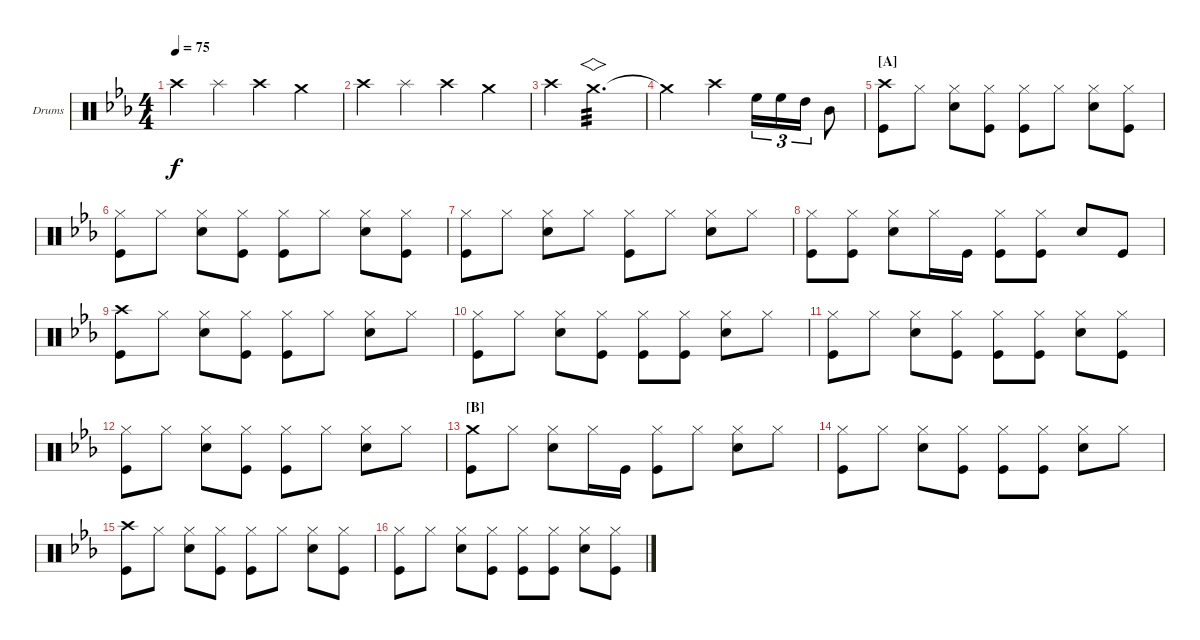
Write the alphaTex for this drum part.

\bracketExtendMode groupsimilarinstruments
\firstSystemTrackNameOrientation horizontal
\otherSystemsTrackNameOrientation horizontal
\track ("Drumkit" "Drums") {instrument percussion}
\staff {score}
\articulation defaults
\ts (4 4)
\tempo 75
\clef neutral
\scale
0.474178
\ks eb "Crash high (hit)".4{dy f} "Splash (hit)".4 "Crash high (hit)".4 "Crash medium (hit)".4
|
\scale
0.262911 "Crash high (hit)".4 "Splash (hit)".4 "Crash high (hit)".4 "Crash medium (hit)".4 |
\scale
0.262911 "Crash high (hit)".4 "Crash medium (hit)".2{vs d tp 3} |
\scale
0.333333 "Crash medium (hit)"{t}.2 "Crash high (hit)".4 "High Floor Tom (hit)".16{tu (3 2)} "High Floor Tom (hit)".16{tu (3 2)} "High Tom (hit)".16{tu (3 2)} "Mid Tom (hit)".8 |
\section ("A" "")
\scale
0.333333 ("Kick (hit)" "Crash high (hit)").8 "Hi-Hat (closed)".8 ("Snare (hit) 2" "Hi-Hat (closed)").8 ("Kick (hit)" "Hi-Hat (closed)").8 ("Kick (hit)" "Hi-Hat (closed)").8 "Hi-Hat (closed)".8 ("Snare (hit) 2" "Hi-Hat (closed)").8 ("Kick (hit)" "Hi-Hat (closed)").8 |
\scale
0.333333 ("Kick (hit)" "Hi-Hat (closed)").8 "Hi-Hat (closed)".8 ("Snare (hit) 2" "Hi-Hat (closed)").8 ("Kick (hit)" "Hi-Hat (closed)").8 ("Kick (hit)" "Hi-Hat (closed)").8 "Hi-Hat (closed)".8 ("Snare (hit) 2" "Hi-Hat (closed)").8 ("Kick (hit)" "Hi-Hat (closed)").8 |
\scale
0.333333 ("Kick (hit)" "Hi-Hat (closed)").8 "Hi-Hat (closed)".8 ("Snare (hit) 2" "Hi-Hat (closed)").8 "Hi-Hat (closed)".8 ("Kick (hit)" "Hi-Hat (closed)").8 "Hi-Hat (closed)".8 ("Snare (hit) 2" "Hi-Hat (closed)").8 "Hi-Hat (closed)".8 |
\scale
0.333333 ("Kick (hit)" "Hi-Hat (closed)").8 ("Hi-Hat (closed)" "Kick (hit)").8 ("Snare (hit) 2" "Hi-Hat (closed)").8 "Hi-Hat (closed)".16 "Kick (hit)".16 ("Kick (hit)" "Hi-Hat (closed)").8 ("Hi-Hat (closed)" "Kick (hit)").8 "Snare (hit) 2".8 "Kick (hit)".8 |
\scale
0.333333 ("Kick (hit)" "Crash high (hit)").8 "Hi-Hat (closed)".8 ("Snare (hit) 2" "Hi-Hat (closed)").8 ("Kick (hit)" "Hi-Hat (closed)").8 ("Kick (hit)" "Hi-Hat (closed)").8 "Hi-Hat (closed)".8 ("Snare (hit) 2" "Hi-Hat (closed)").8 "Hi-Hat (closed)".8 |
\scale
0.333333 ("Kick (hit)" "Hi-Hat (closed)").8 "Hi-Hat (closed)".8 ("Snare (hit) 2" "Hi-Hat (closed)").8 ("Kick (hit)" "Hi-Hat (closed)").8 ("Kick (hit)" "Hi-Hat (closed)").8 ("Hi-Hat (closed)" "Kick (hit)").8 ("Snare (hit) 2" "Hi-Hat (closed)").8 "Hi-Hat (closed)".8 |
\scale
0.333333 ("Kick (hit)" "Hi-Hat (closed)").8 "Hi-Hat (closed)".8 ("Snare (hit) 2" "Hi-Hat (closed)").8 ("Kick (hit)" "Hi-Hat (closed)").8 ("Kick (hit)" "Hi-Hat (closed)").8 ("Hi-Hat (closed)" "Kick (hit)").8 ("Snare (hit) 2" "Hi-Hat (closed)").8 ("Kick (hit)" "Hi-Hat (closed)").8 |
\scale
0.333333 ("Kick (hit)" "Hi-Hat (closed)").8 "Hi-Hat (closed)".8 ("Snare (hit) 2" "Hi-Hat (closed)").8 ("Kick (hit)" "Hi-Hat (closed)").8 ("Kick (hit)" "Hi-Hat (closed)").8 "Hi-Hat (closed)".8 ("Snare (hit) 2" "Hi-Hat (closed)").8 "Hi-Hat (closed)".8 |
\section ("B" "")
\scale
0.333333 ("Kick (hit)" "Crash medium (hit)").8 "Hi-Hat (closed)".8 ("Hi-Hat (closed)" "Snare (hit) 2").8 "Hi-Hat (closed)".16 "Kick (hit)".16 ("Kick (hit)" "Hi-Hat (closed)").8 "Hi-Hat (closed)".8 ("Hi-Hat (closed)" "Snare (hit) 2").8 "Hi-Hat (closed)".8 |
\scale
0.333333 ("Kick (hit)" "Hi-Hat (closed)").8 "Hi-Hat (closed)".8 ("Snare (hit) 2" "Hi-Hat (closed)").8 ("Kick (hit)" "Hi-Hat (closed)").8 ("Kick (hit)" "Hi-Hat (closed)").8 ("Kick (hit)" "Hi-Hat (closed)").8 ("Snare (hit) 2" "Hi-Hat (closed)").8 "Hi-Hat (closed)".8 |
\scale
0.333333 ("Kick (hit)" "Crash high (hit)").8 "Hi-Hat (closed)".8 ("Snare (hit) 2" "Hi-Hat (closed)").8 ("Kick (hit)" "Hi-Hat (closed)").8 ("Kick (hit)" "Hi-Hat (closed)").8 "Hi-Hat (closed)".8 ("Snare (hit) 2" "Hi-Hat (closed)").8 ("Kick (hit)" "Hi-Hat (closed)").8 |
\scale
0.262911 ("Kick (hit)" "Hi-Hat (closed)").8 "Hi-Hat (closed)".8 ("Snare (hit) 2" "Hi-Hat (closed)").8 ("Kick (hit)" "Hi-Hat (closed)").8 ("Kick (hit)" "Hi-Hat (closed)").8 ("Kick (hit)" "Hi-Hat (closed)").8 ("Snare (hit) 2" "Hi-Hat (closed)").8 ("Kick (hit)" "Hi-Hat (closed)").8
